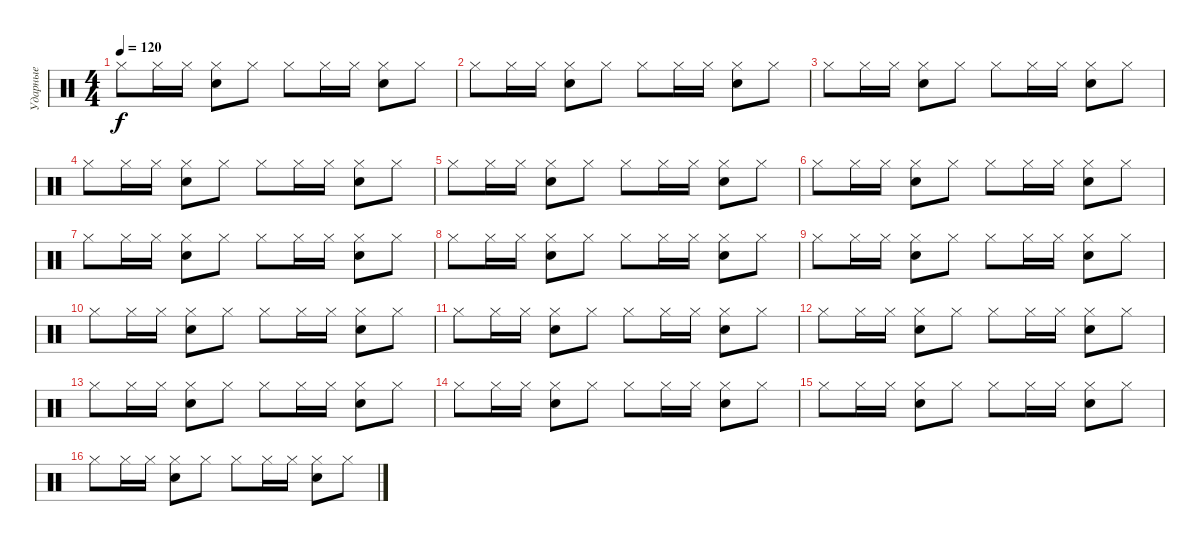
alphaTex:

\track ("Ударные" "Ударные") {instrument percussion}
\staff {score}
\articulation defaults
\ts (4 4)
\tempo 120
\clef neutral
\ks c "Hi-Hat (closed)".8{dy f} "Hi-Hat (closed)".16 "Hi-Hat (closed)".16
("Hi-Hat (closed)" "Electric Snare (hit)").8 "Hi-Hat (closed)".8 "Hi-Hat (closed)".8 "Hi-Hat (closed)".16 "Hi-Hat (closed)".16 ("Hi-Hat (closed)" "Electric Snare (hit)").8 "Hi-Hat (closed)".8 |
"Hi-Hat (closed)".8 "Hi-Hat (closed)".16 "Hi-Hat (closed)".16 ("Hi-Hat (closed)" "Electric Snare (hit)").8 "Hi-Hat (closed)".8 "Hi-Hat (closed)".8 "Hi-Hat (closed)".16 "Hi-Hat (closed)".16 ("Hi-Hat (closed)" "Electric Snare (hit)").8 "Hi-Hat (closed)".8 |
"Hi-Hat (closed)".8 "Hi-Hat (closed)".16 "Hi-Hat (closed)".16 ("Hi-Hat (closed)" "Electric Snare (hit)").8 "Hi-Hat (closed)".8 "Hi-Hat (closed)".8 "Hi-Hat (closed)".16 "Hi-Hat (closed)".16 ("Hi-Hat (closed)" "Electric Snare (hit)").8 "Hi-Hat (closed)".8 |
"Hi-Hat (closed)".8 "Hi-Hat (closed)".16 "Hi-Hat (closed)".16 ("Hi-Hat (closed)" "Electric Snare (hit)").8 "Hi-Hat (closed)".8 "Hi-Hat (closed)".8 "Hi-Hat (closed)".16 "Hi-Hat (closed)".16 ("Hi-Hat (closed)" "Electric Snare (hit)").8 "Hi-Hat (closed)".8 |
"Hi-Hat (closed)".8 "Hi-Hat (closed)".16 "Hi-Hat (closed)".16 ("Hi-Hat (closed)" "Electric Snare (hit)").8 "Hi-Hat (closed)".8 "Hi-Hat (closed)".8 "Hi-Hat (closed)".16 "Hi-Hat (closed)".16 ("Hi-Hat (closed)" "Electric Snare (hit)").8 "Hi-Hat (closed)".8 |
"Hi-Hat (closed)".8 "Hi-Hat (closed)".16 "Hi-Hat (closed)".16 ("Hi-Hat (closed)" "Electric Snare (hit)").8 "Hi-Hat (closed)".8 "Hi-Hat (closed)".8 "Hi-Hat (closed)".16 "Hi-Hat (closed)".16 ("Hi-Hat (closed)" "Electric Snare (hit)").8 "Hi-Hat (closed)".8 |
"Hi-Hat (closed)".8 "Hi-Hat (closed)".16 "Hi-Hat (closed)".16 ("Hi-Hat (closed)" "Electric Snare (hit)").8 "Hi-Hat (closed)".8 "Hi-Hat (closed)".8 "Hi-Hat (closed)".16 "Hi-Hat (closed)".16 ("Hi-Hat (closed)" "Electric Snare (hit)").8 "Hi-Hat (closed)".8 |
"Hi-Hat (closed)".8 "Hi-Hat (closed)".16 "Hi-Hat (closed)".16 ("Hi-Hat (closed)" "Electric Snare (hit)").8 "Hi-Hat (closed)".8 "Hi-Hat (closed)".8 "Hi-Hat (closed)".16 "Hi-Hat (closed)".16 ("Hi-Hat (closed)" "Electric Snare (hit)").8 "Hi-Hat (closed)".8 |
"Hi-Hat (closed)".8 "Hi-Hat (closed)".16 "Hi-Hat (closed)".16 ("Hi-Hat (closed)" "Electric Snare (hit)").8 "Hi-Hat (closed)".8 "Hi-Hat (closed)".8 "Hi-Hat (closed)".16 "Hi-Hat (closed)".16 ("Hi-Hat (closed)" "Electric Snare (hit)").8 "Hi-Hat (closed)".8 |
"Hi-Hat (closed)".8 "Hi-Hat (closed)".16 "Hi-Hat (closed)".16 ("Hi-Hat (closed)" "Electric Snare (hit)").8 "Hi-Hat (closed)".8 "Hi-Hat (closed)".8 "Hi-Hat (closed)".16 "Hi-Hat (closed)".16 ("Hi-Hat (closed)" "Electric Snare (hit)").8 "Hi-Hat (closed)".8 |
"Hi-Hat (closed)".8 "Hi-Hat (closed)".16 "Hi-Hat (closed)".16 ("Hi-Hat (closed)" "Electric Snare (hit)").8 "Hi-Hat (closed)".8 "Hi-Hat (closed)".8 "Hi-Hat (closed)".16 "Hi-Hat (closed)".16 ("Hi-Hat (closed)" "Electric Snare (hit)").8 "Hi-Hat (closed)".8 |
"Hi-Hat (closed)".8 "Hi-Hat (closed)".16 "Hi-Hat (closed)".16 ("Hi-Hat (closed)" "Electric Snare (hit)").8 "Hi-Hat (closed)".8 "Hi-Hat (closed)".8 "Hi-Hat (closed)".16 "Hi-Hat (closed)".16 ("Hi-Hat (closed)" "Electric Snare (hit)").8 "Hi-Hat (closed)".8 |
"Hi-Hat (closed)".8 "Hi-Hat (closed)".16 "Hi-Hat (closed)".16 ("Hi-Hat (closed)" "Electric Snare (hit)").8 "Hi-Hat (closed)".8 "Hi-Hat (closed)".8 "Hi-Hat (closed)".16 "Hi-Hat (closed)".16 ("Hi-Hat (closed)" "Electric Snare (hit)").8 "Hi-Hat (closed)".8 |
"Hi-Hat (closed)".8 "Hi-Hat (closed)".16 "Hi-Hat (closed)".16 ("Hi-Hat (closed)" "Electric Snare (hit)").8 "Hi-Hat (closed)".8 "Hi-Hat (closed)".8 "Hi-Hat (closed)".16 "Hi-Hat (closed)".16 ("Hi-Hat (closed)" "Electric Snare (hit)").8 "Hi-Hat (closed)".8 |
"Hi-Hat (closed)".8 "Hi-Hat (closed)".16 "Hi-Hat (closed)".16 ("Hi-Hat (closed)" "Electric Snare (hit)").8 "Hi-Hat (closed)".8 "Hi-Hat (closed)".8 "Hi-Hat (closed)".16 "Hi-Hat (closed)".16 ("Hi-Hat (closed)" "Electric Snare (hit)").8 "Hi-Hat (closed)".8 |
"Hi-Hat (closed)".8 "Hi-Hat (closed)".16 "Hi-Hat (closed)".16 ("Hi-Hat (closed)" "Electric Snare (hit)").8 "Hi-Hat (closed)".8 "Hi-Hat (closed)".8 "Hi-Hat (closed)".16 "Hi-Hat (closed)".16 ("Hi-Hat (closed)" "Electric Snare (hit)").8 "Hi-Hat (closed)".8
